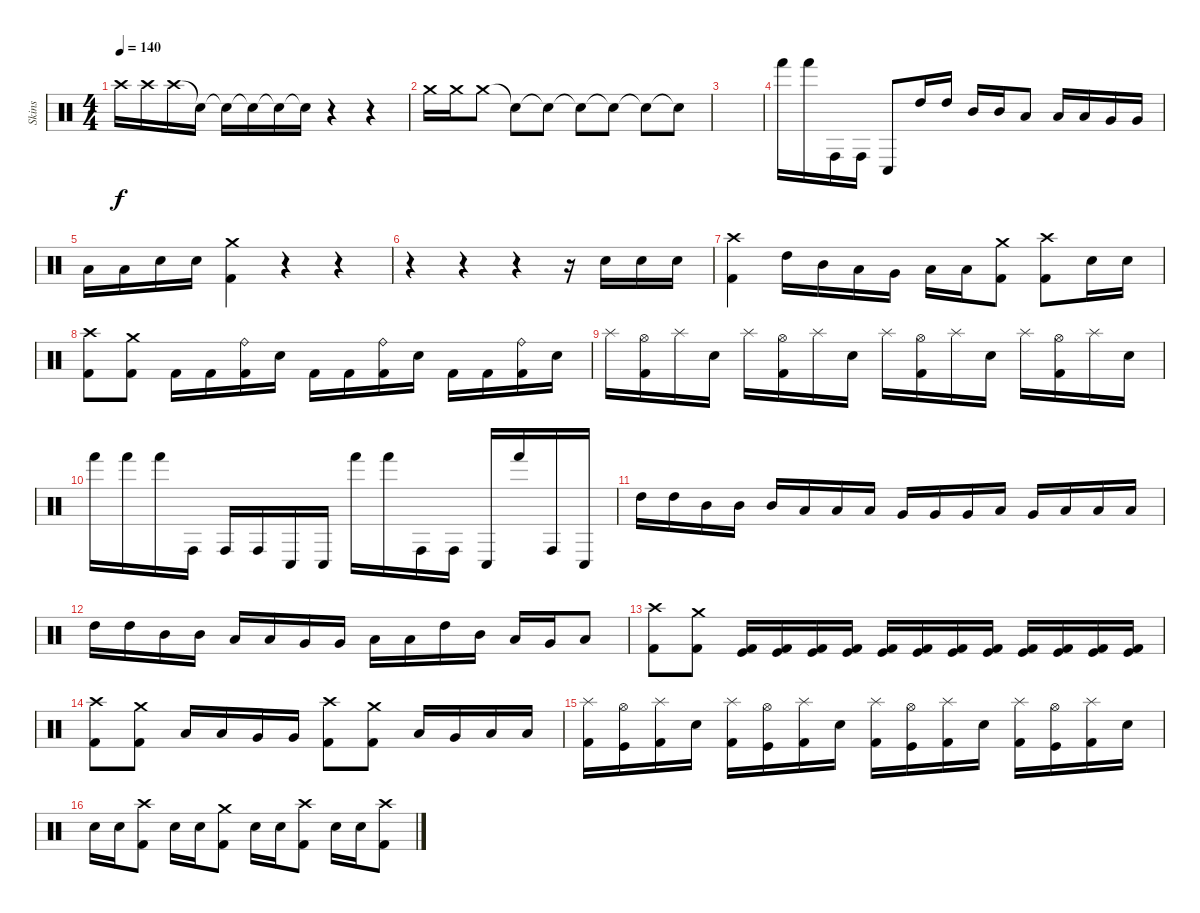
\track ("Skins" "Skins") {instrument percussion}
\staff {score}
\articulation defaults
\ts (4 4)
\tempo 140
\clef neutral
\ks c "Crash high (hit)".16{dy f} "Crash high (hit)".16 "Crash high (hit)".16 "Snare (hit)"{t}.16 "Snare (hit)"{t}.16 "Snare (hit)"{t}.16 "Snare (hit)"{t}.16 "Snare (hit)"{t}.16
r.4 r.4 |
"Crash medium (hit)".16 "Crash medium (hit)".16 "Crash medium (hit)".8 "Snare (hit)"{t}.8 "Snare (hit)"{t}.8 "Snare (hit)"{t}.8 "Snare (hit)"{t}.8 "Snare (hit)"{t}.8 "Snare (hit)"{t}.8 |
|
"Hand (hit)".16{volume 16 balance 16} "Hand (hit)".16{volume 16 balance 12} "Conga high (hit)".16{volume 16 balance 8} "Conga high (hit)".16{volume 16 balance 6} "Conga low (hit)".8{volume 16 balance 4} "High Tom (hit)".16{volume 16 balance 0} "High Tom (hit)".16{volume 16 balance 13} "Mid Tom (hit)".16{volume 16 balance 11} "Mid Tom (hit)".16{volume 16 balance 9} "Low Tom (hit)".8{volume 16 balance 8} "Low Tom (hit)".16{volume 16 balance 6} "Low Tom (hit)".16{volume 16 balance 4} "Very Low Tom (hit)".16{volume 16 balance 1} "Very Low Tom (hit)".16{volume 16 balance 4} |
"Low Floor Tom (hit)".16{volume 16 balance 8} "Low Floor Tom (hit)".16{volume 16} "Electric Snare (hit)".16{volume 15} "Electric Snare (hit)".16 ("Crash medium (hit)" "Kick (hit) 2").4 r.4 r.4 |
r.4 r.4 r.4 r.16 "Electric Snare (hit)".16{volume 15} "Electric Snare (hit)".16 "Electric Snare (hit)".16 |
("Crash high (hit)" "Kick (hit) 2").4 "High Tom (hit)".16 "Mid Tom (hit)".16 "Low Tom (hit)".16 "Very Low Tom (hit)".16 "Low Floor Tom (hit)".16 "Low Floor Tom (hit)".16 ("Crash medium (hit)" "Kick (hit) 2").8 ("Crash high (hit)" "Kick (hit) 2").8 "Electric Snare (hit)".16 "Electric Snare (hit)".16 |
("Crash high (hit)" "Kick (hit) 2").8 ("Crash medium (hit)" "Kick (hit) 2").8 "Kick (hit) 2".16 "Kick (hit) 2".16 ("Ride (bell)" "Kick (hit) 2").16 "Electric Snare (hit)".16 "Kick (hit) 2".16 "Kick (hit) 2".16 ("Ride (bell)" "Kick (hit) 2").16 "Electric Snare (hit)".16 "Kick (hit) 2".16 "Kick (hit) 2".16 ("Ride (bell)" "Kick (hit) 2").16 "Electric Snare (hit)".16 |
"Splash (hit)".16 ("Hi-Hat (open)" "Kick (hit) 2").16 "Splash (hit)".16 "Electric Snare (hit)".16 "Splash (hit)".16 ("Hi-Hat (open)" "Kick (hit) 2").16 "Splash (hit)".16 "Electric Snare (hit)".16 "Splash (hit)".16 ("Hi-Hat (open)" "Kick (hit) 2").16 "Splash (hit)".16 "Electric Snare (hit)".16 "Splash (hit)".16 ("Hi-Hat (open)" "Kick (hit) 2").16 "Splash (hit)".16 "Electric Snare (hit)".16 |
"Hand (hit)".16 "Hand (hit)".16 "Hand (hit)".16 "Conga high (hit)".16 "Conga high (hit)".16 "Conga high (hit)".16 "Conga low (hit)".16 "Conga low (hit)".16 "Hand (hit)".16 "Hand (hit)".16 "Conga high (hit)".16 "Conga high (hit)".16 "Conga low (hit)".16 "Hand (hit)".16 "Conga high (hit)".16 "Conga low (hit)".16 |
"High Tom (hit)".16 "High Tom (hit)".16 "Mid Tom (hit)".16 "Mid Tom (hit)".16 "Mid Tom (hit)".16 "Low Tom (hit)".16 "Low Tom (hit)".16 "Low Tom (hit)".16 "Very Low Tom (hit)".16 "Very Low Tom (hit)".16 "Very Low Tom (hit)".16 "Low Floor Tom (hit)".16 "Very Low Tom (hit)".16 "Low Floor Tom (hit)".16 "Low Floor Tom (hit)".16 "Low Floor Tom (hit)".16 |
"High Tom (hit)".16 "High Tom (hit)".16 "Mid Tom (hit)".16 "Mid Tom (hit)".16 "Low Tom (hit)".16 "Low Tom (hit)".16 "Very Low Tom (hit)".16 "Very Low Tom (hit)".16 "Low Floor Tom (hit)".16 "Low Floor Tom (hit)".16 "High Tom (hit)".16 "Mid Tom (hit)".16 "Low Tom (hit)".16 "Very Low Tom (hit)".16 "Low Floor Tom (hit)".8 |
("Crash high (hit)" "Kick (hit) 2").8 ("Crash medium (hit)" "Kick (hit) 2").8 ("Kick (hit) 2" "Kick (hit)").16 ("Kick (hit) 2" "Kick (hit)").16 ("Kick (hit) 2" "Kick (hit)").16 ("Kick (hit) 2" "Kick (hit)").16 ("Kick (hit) 2" "Kick (hit)").16 ("Kick (hit) 2" "Kick (hit)").16 ("Kick (hit) 2" "Kick (hit)").16 ("Kick (hit) 2" "Kick (hit)").16 ("Kick (hit) 2" "Kick (hit)").16 ("Kick (hit) 2" "Kick (hit)").16 ("Kick (hit) 2" "Kick (hit)").16 ("Kick (hit) 2" "Kick (hit)").16 |
("Crash high (hit)" "Kick (hit) 2").8 ("Crash medium (hit)" "Kick (hit) 2").8 "Low Tom (hit)".16 "Low Tom (hit)".16 "Very Low Tom (hit)".16 "Very Low Tom (hit)".16 ("Crash high (hit)" "Kick (hit) 2").8 ("Crash medium (hit)" "Kick (hit) 2").8 "Low Tom (hit)".16 "Very Low Tom (hit)".16 "Low Floor Tom (hit)".16 "Low Floor Tom (hit)".16 |
("Splash (hit)" "Kick (hit) 2").16 ("Hi-Hat (open)" "Kick (hit)").16 ("Splash (hit)" "Kick (hit) 2").16 "Electric Snare (hit)".16 ("Splash (hit)" "Kick (hit) 2").16 ("Hi-Hat (open)" "Kick (hit)").16 ("Splash (hit)" "Kick (hit) 2").16 "Electric Snare (hit)".16 ("Splash (hit)" "Kick (hit) 2").16 ("Hi-Hat (open)" "Kick (hit)").16 ("Splash (hit)" "Kick (hit) 2").16 "Electric Snare (hit)".16 ("Splash (hit)" "Kick (hit) 2").16 ("Hi-Hat (open)" "Kick (hit)").16 ("Splash (hit)" "Kick (hit) 2").16 "Electric Snare (hit)".16 |
"Electric Snare (hit)".16 "Electric Snare (hit)".16 ("Crash high (hit)" "Kick (hit) 2").8 "Electric Snare (hit)".16 "Electric Snare (hit)".16 ("Crash medium (hit)" "Kick (hit) 2").8 "Electric Snare (hit)".16 "Electric Snare (hit)".16 ("Crash high (hit)" "Kick (hit) 2").8 "Electric Snare (hit)".16 "Electric Snare (hit)".16 ("Crash high (hit)" "Kick (hit) 2").8
